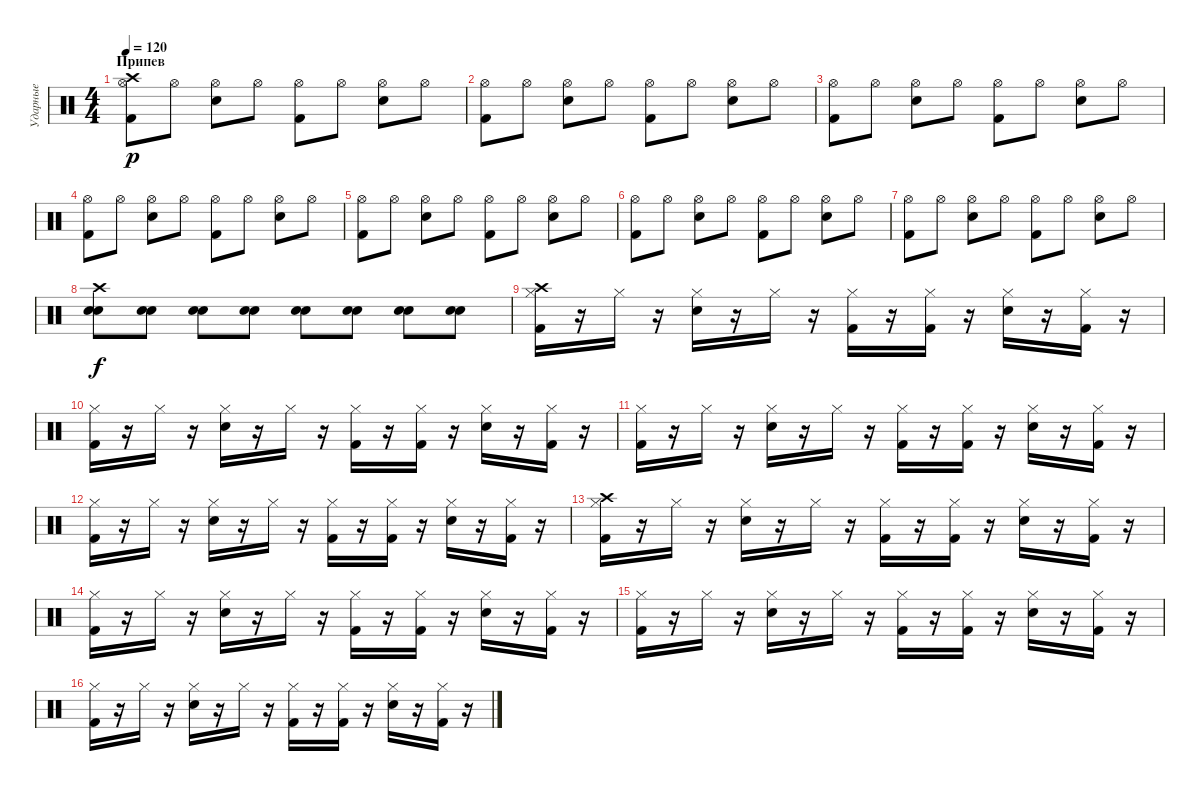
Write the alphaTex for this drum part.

\track ("Ударные" "Ударные") {instrument percussion}
\staff {score}
\articulation defaults
\ts (4 4)
\section ("" "Припев")
\tempo 120
\clef neutral
\ks c
("Hi-Hat (open)" "Kick (hit) 2" "Crash high (hit)").8{dy p} "Hi-Hat (open)".8 ("Hi-Hat (open)" "Snare (hit) 2").8 "Hi-Hat (open)".8 ("Hi-Hat (open)" "Kick (hit) 2").8 "Hi-Hat (open)".8 ("Hi-Hat (open)" "Snare (hit) 2").8 "Hi-Hat (open)".8 |
("Hi-Hat (open)" "Kick (hit) 2").8 "Hi-Hat (open)".8 ("Hi-Hat (open)" "Snare (hit) 2").8 "Hi-Hat (open)".8 ("Hi-Hat (open)" "Kick (hit) 2").8 "Hi-Hat (open)".8 ("Hi-Hat (open)" "Snare (hit) 2").8 "Hi-Hat (open)".8 |
("Hi-Hat (open)" "Kick (hit) 2").8 "Hi-Hat (open)".8 ("Hi-Hat (open)" "Snare (hit) 2").8 "Hi-Hat (open)".8 ("Hi-Hat (open)" "Kick (hit) 2").8 "Hi-Hat (open)".8 ("Hi-Hat (open)" "Snare (hit) 2").8 "Hi-Hat (open)".8 |
("Hi-Hat (open)" "Kick (hit) 2").8 "Hi-Hat (open)".8 ("Hi-Hat (open)" "Snare (hit) 2").8 "Hi-Hat (open)".8 ("Hi-Hat (open)" "Kick (hit) 2").8 "Hi-Hat (open)".8 ("Hi-Hat (open)" "Snare (hit) 2").8 "Hi-Hat (open)".8 |
("Hi-Hat (open)" "Kick (hit) 2").8 "Hi-Hat (open)".8 ("Hi-Hat (open)" "Snare (hit) 2").8 "Hi-Hat (open)".8 ("Hi-Hat (open)" "Kick (hit) 2").8 "Hi-Hat (open)".8 ("Hi-Hat (open)" "Snare (hit) 2").8 "Hi-Hat (open)".8 |
("Hi-Hat (open)" "Kick (hit) 2").8 "Hi-Hat (open)".8 ("Hi-Hat (open)" "Snare (hit) 2").8 "Hi-Hat (open)".8 ("Hi-Hat (open)" "Kick (hit) 2").8 "Hi-Hat (open)".8 ("Hi-Hat (open)" "Snare (hit) 2").8 "Hi-Hat (open)".8 |
("Hi-Hat (open)" "Kick (hit) 2").8 "Hi-Hat (open)".8 ("Hi-Hat (open)" "Snare (hit) 2").8 "Hi-Hat (open)".8 ("Hi-Hat (open)" "Kick (hit) 2").8 "Hi-Hat (open)".8 ("Hi-Hat (open)" "Snare (hit) 2").8 "Hi-Hat (open)".8 |
("Snare (hit) 2" "Snare (hit) 2" "Crash high (hit)").8{dy f} ("Snare (hit) 2" "Snare (hit) 2").8 ("Snare (hit) 2" "Snare (hit) 2").8 ("Snare (hit) 2" "Snare (hit) 2").8 ("Snare (hit) 2" "Snare (hit) 2").8 ("Snare (hit) 2" "Snare (hit) 2").8 ("Snare (hit) 2" "Snare (hit) 2").8 ("Snare (hit) 2" "Snare (hit) 2").8 |
("Hi-Hat (closed)" "Kick (hit) 2" "Crash high (hit)").16 r.16 "Hi-Hat (closed)".16 r.16 ("Hi-Hat (closed)" "Snare (hit) 2").16 r.16 "Hi-Hat (closed)".16 r.16 ("Hi-Hat (closed)" "Kick (hit) 2").16 r.16 ("Hi-Hat (closed)" "Kick (hit) 2").16 r.16 ("Hi-Hat (closed)" "Snare (hit) 2").16 r.16 ("Hi-Hat (closed)" "Kick (hit) 2").16 r.16 |
("Hi-Hat (closed)" "Kick (hit) 2").16 r.16 "Hi-Hat (closed)".16 r.16 ("Hi-Hat (closed)" "Snare (hit) 2").16 r.16 "Hi-Hat (closed)".16 r.16 ("Hi-Hat (closed)" "Kick (hit) 2").16 r.16 ("Hi-Hat (closed)" "Kick (hit) 2").16 r.16 ("Hi-Hat (closed)" "Snare (hit) 2").16 r.16 ("Hi-Hat (closed)" "Kick (hit) 2").16 r.16 |
("Hi-Hat (closed)" "Kick (hit) 2").16 r.16 "Hi-Hat (closed)".16 r.16 ("Hi-Hat (closed)" "Snare (hit) 2").16 r.16 "Hi-Hat (closed)".16 r.16 ("Hi-Hat (closed)" "Kick (hit) 2").16 r.16 ("Hi-Hat (closed)" "Kick (hit) 2").16 r.16 ("Hi-Hat (closed)" "Snare (hit) 2").16 r.16 ("Hi-Hat (closed)" "Kick (hit) 2").16 r.16 |
("Hi-Hat (closed)" "Kick (hit) 2").16 r.16 "Hi-Hat (closed)".16 r.16 ("Hi-Hat (closed)" "Snare (hit) 2").16 r.16 "Hi-Hat (closed)".16 r.16 ("Hi-Hat (closed)" "Kick (hit) 2").16 r.16 ("Hi-Hat (closed)" "Kick (hit) 2").16 r.16 ("Hi-Hat (closed)" "Snare (hit) 2").16 r.16 ("Hi-Hat (closed)" "Kick (hit) 2").16 r.16 |
("Hi-Hat (closed)" "Kick (hit) 2" "Crash high (hit)").16 r.16 "Hi-Hat (closed)".16 r.16 ("Hi-Hat (closed)" "Snare (hit) 2").16 r.16 "Hi-Hat (closed)".16 r.16 ("Hi-Hat (closed)" "Kick (hit) 2").16 r.16 ("Hi-Hat (closed)" "Kick (hit) 2").16 r.16 ("Hi-Hat (closed)" "Snare (hit) 2").16 r.16 ("Hi-Hat (closed)" "Kick (hit) 2").16 r.16 |
("Hi-Hat (closed)" "Kick (hit) 2").16 r.16 "Hi-Hat (closed)".16 r.16 ("Hi-Hat (closed)" "Snare (hit) 2").16 r.16 "Hi-Hat (closed)".16 r.16 ("Hi-Hat (closed)" "Kick (hit) 2").16 r.16 ("Hi-Hat (closed)" "Kick (hit) 2").16 r.16 ("Hi-Hat (closed)" "Snare (hit) 2").16 r.16 ("Hi-Hat (closed)" "Kick (hit) 2").16 r.16 |
("Hi-Hat (closed)" "Kick (hit) 2").16 r.16 "Hi-Hat (closed)".16 r.16 ("Hi-Hat (closed)" "Snare (hit) 2").16 r.16 "Hi-Hat (closed)".16 r.16 ("Hi-Hat (closed)" "Kick (hit) 2").16 r.16 ("Hi-Hat (closed)" "Kick (hit) 2").16 r.16 ("Hi-Hat (closed)" "Snare (hit) 2").16 r.16 ("Hi-Hat (closed)" "Kick (hit) 2").16 r.16 |
("Hi-Hat (closed)" "Kick (hit) 2").16 r.16 "Hi-Hat (closed)".16 r.16 ("Hi-Hat (closed)" "Snare (hit) 2").16 r.16 "Hi-Hat (closed)".16 r.16 ("Hi-Hat (closed)" "Kick (hit) 2").16 r.16 ("Hi-Hat (closed)" "Kick (hit) 2").16 r.16 ("Hi-Hat (closed)" "Snare (hit) 2").16 r.16 ("Hi-Hat (closed)" "Kick (hit) 2").16 r.16
